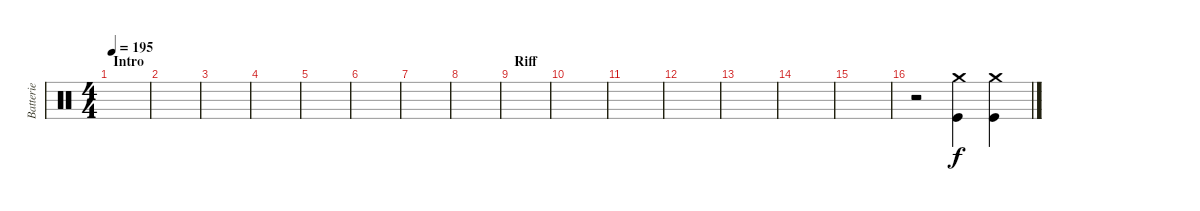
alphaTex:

\track ("Batterie" "Batterie") {instrument percussion}
\staff {score}
\articulation defaults
\ts (4 4)
\section ("" "Intro")
\tempo 195
\clef neutral
\ks c
|
|
|
|
|
|
|
|
\section ("" "Riff")
|
|
|
|
|
|
|
r.2 ("Crash medium (hit)" "Kick (hit)").4 ("Crash medium (hit)" "Kick (hit)").4
